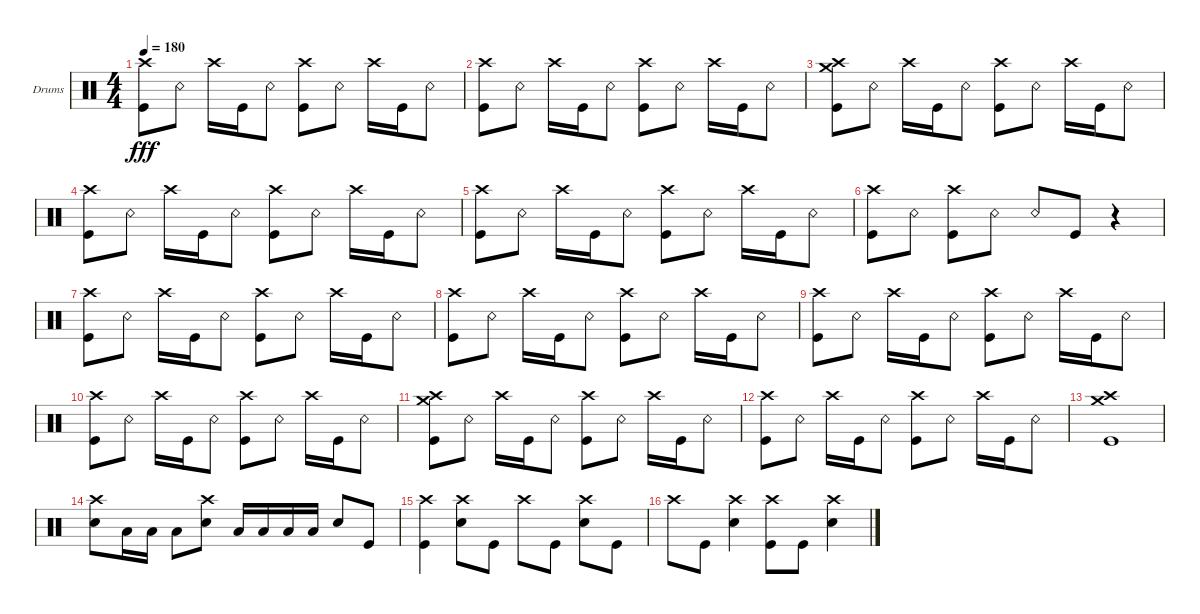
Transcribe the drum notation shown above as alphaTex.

\defaultSystemsLayout 4
\bracketExtendMode groupsimilarinstruments
\firstSystemTrackNameOrientation horizontal
\otherSystemsTrackNameOrientation horizontal
\track ("Drumkit" "Drums") {instrument percussion}
\staff {score}
\articulation defaults
\ts (4 4)
\tempo 180
\clef neutral
\ks c
("Kick (hit)" "Crash high (hit)").8{dy fff} "Snare (rim shot)".8 "Crash high (hit)".16 "Kick (hit)".16 "Snare (rim shot)".8 ("Kick (hit)" "Crash high (hit)").8 "Snare (rim shot)".8 "Crash high (hit)".16 "Kick (hit)".16 "Snare (rim shot)".8 |
("Kick (hit)" "Crash high (hit)").8 "Snare (rim shot)".8 "Crash high (hit)".16 "Kick (hit)".16 "Snare (rim shot)".8 ("Kick (hit)" "Crash high (hit)").8 "Snare (rim shot)".8 "Crash high (hit)".16 "Kick (hit)".16 "Snare (rim shot)".8 |
("Kick (hit)" "Crash high (hit)" "Crash medium (hit)").8 "Snare (rim shot)".8 "Crash high (hit)".16 "Kick (hit)".16 "Snare (rim shot)".8 ("Kick (hit)" "Crash high (hit)").8 "Snare (rim shot)".8 "Crash high (hit)".16 "Kick (hit)".16 "Snare (rim shot)".8 |
("Kick (hit)" "Crash high (hit)").8 "Snare (rim shot)".8 "Crash high (hit)".16 "Kick (hit)".16 "Snare (rim shot)".8 ("Kick (hit)" "Crash high (hit)").8 "Snare (rim shot)".8 "Crash high (hit)".16 "Kick (hit)".16 "Snare (rim shot)".8 |
("Kick (hit)" "Crash high (hit)").8 "Snare (rim shot)".8 "Crash high (hit)".16 "Kick (hit)".16 "Snare (rim shot)".8 ("Kick (hit)" "Crash high (hit)").8 "Snare (rim shot)".8 "Crash high (hit)".16 "Kick (hit)".16 "Snare (rim shot)".8 |
("Kick (hit)" "Crash high (hit)").8 "Snare (rim shot)".8 ("Crash high (hit)" "Kick (hit)").8 "Snare (rim shot)".8 "Snare (rim shot)".8 "Kick (hit)".8 r.4 |
("Kick (hit)" "Crash high (hit)").8 "Snare (rim shot)".8 "Crash high (hit)".16 "Kick (hit)".16 "Snare (rim shot)".8 ("Kick (hit)" "Crash high (hit)").8 "Snare (rim shot)".8 "Crash high (hit)".16 "Kick (hit)".16 "Snare (rim shot)".8 |
("Kick (hit)" "Crash high (hit)").8 "Snare (rim shot)".8 "Crash high (hit)".16 "Kick (hit)".16 "Snare (rim shot)".8 ("Kick (hit)" "Crash high (hit)").8 "Snare (rim shot)".8 "Crash high (hit)".16 "Kick (hit)".16 "Snare (rim shot)".8 |
("Kick (hit)" "Crash high (hit)").8 "Snare (rim shot)".8 "Crash high (hit)".16 "Kick (hit)".16 "Snare (rim shot)".8 ("Kick (hit)" "Crash high (hit)").8 "Snare (rim shot)".8 "Crash high (hit)".16 "Kick (hit)".16 "Snare (rim shot)".8 |
("Kick (hit)" "Crash high (hit)").8 "Snare (rim shot)".8 "Crash high (hit)".16 "Kick (hit)".16 "Snare (rim shot)".8 ("Kick (hit)" "Crash high (hit)").8 "Snare (rim shot)".8 "Crash high (hit)".16 "Kick (hit)".16 "Snare (rim shot)".8 |
("Kick (hit)" "Crash high (hit)" "Crash medium (hit)").8 "Snare (rim shot)".8 "Crash high (hit)".16 "Kick (hit)".16 "Snare (rim shot)".8 ("Kick (hit)" "Crash high (hit)").8 "Snare (rim shot)".8 "Crash high (hit)".16 "Kick (hit)".16 "Snare (rim shot)".8 |
("Kick (hit)" "Crash high (hit)").8 "Snare (rim shot)".8 "Crash high (hit)".16 "Kick (hit)".16 "Snare (rim shot)".8 ("Kick (hit)" "Crash high (hit)").8 "Snare (rim shot)".8 "Crash high (hit)".16 "Kick (hit)".16 "Snare (rim shot)".8 |
("Kick (hit)" "Crash high (hit)" "Crash medium (hit)").1 |
("Snare (hit) 2" "Crash high (hit)").8 "Low Tom (hit)".16 "Low Tom (hit)".16 "Low Tom (hit)".8 ("Snare (hit) 2" "Crash high (hit)").8 "Low Tom (hit)".16 "Low Tom (hit)".16 "Low Tom (hit)".16 "Low Tom (hit)".16 "Snare (hit) 2".8 "Kick (hit)".8 |
("Kick (hit)" "Crash high (hit)").4 ("Snare (hit) 2" "Crash high (hit)").8 "Kick (hit)".8 "Crash high (hit)".8 "Kick (hit)".8 ("Snare (hit) 2" "Crash high (hit)").8 "Kick (hit)".8 |
"Crash high (hit)".8 "Kick (hit)".8 ("Snare (hit) 2" "Crash high (hit)").4 ("Kick (hit)" "Crash high (hit)").8 "Kick (hit)".8 ("Snare (hit) 2" "Crash high (hit)").4
